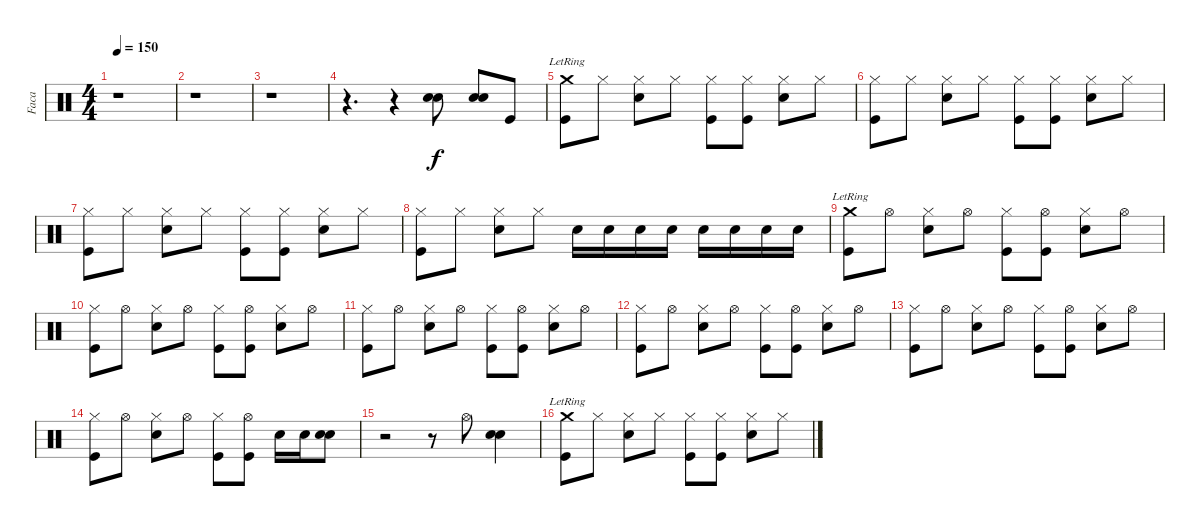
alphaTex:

\track ("Faca" "Faca") {instrument percussion}
\staff {score}
\articulation defaults
\ts (4 4)
\tempo 150
\clef neutral
\ks c
r.1{dy f} |
r.1 |
r.1 |
r.4{d} r.4 ("Snare (hit) 2" "Snare (hit) 2").8{bd 60} ("Snare (hit) 2" "Snare (hit) 2").8{bd 60} "Kick (hit)".8 |
("Crash medium (hit)"{lr} "Kick (hit)").8 "Hi-Hat (closed)".8 ("Hi-Hat (closed)" "Snare (hit) 2").8 "Hi-Hat (closed)".8 ("Hi-Hat (closed)" "Kick (hit)").8 ("Hi-Hat (closed)" "Kick (hit)").8 ("Hi-Hat (closed)" "Snare (hit) 2").8 "Hi-Hat (closed)".8 |
("Hi-Hat (closed)" "Kick (hit)").8 "Hi-Hat (closed)".8 ("Hi-Hat (closed)" "Snare (hit) 2").8 "Hi-Hat (closed)".8 ("Hi-Hat (closed)" "Kick (hit)").8 ("Hi-Hat (closed)" "Kick (hit)").8 ("Hi-Hat (closed)" "Snare (hit) 2").8 "Hi-Hat (closed)".8 |
("Hi-Hat (closed)" "Kick (hit)").8 "Hi-Hat (closed)".8 ("Hi-Hat (closed)" "Snare (hit) 2").8 "Hi-Hat (closed)".8 ("Hi-Hat (closed)" "Kick (hit)").8 ("Hi-Hat (closed)" "Kick (hit)").8 ("Hi-Hat (closed)" "Snare (hit) 2").8 "Hi-Hat (closed)".8 |
("Hi-Hat (closed)" "Kick (hit)").8 "Hi-Hat (closed)".8 ("Hi-Hat (closed)" "Snare (hit) 2").8 "Hi-Hat (closed)".8 "Snare (hit) 2".16 "Snare (hit) 2".16 "Snare (hit) 2".16 "Snare (hit) 2".16 "Snare (hit) 2".16 "Snare (hit) 2".16 "Snare (hit) 2".16 "Snare (hit) 2".16 |
("Crash medium (hit)"{lr} "Kick (hit)").8 "Hi-Hat (open)".8 ("Hi-Hat (closed)" "Snare (hit) 2").8 "Hi-Hat (open)".8 ("Hi-Hat (closed)" "Kick (hit)").8 ("Hi-Hat (open)" "Kick (hit)").8 ("Hi-Hat (closed)" "Snare (hit) 2").8 "Hi-Hat (open)".8 |
("Hi-Hat (closed)" "Kick (hit)").8 "Hi-Hat (open)".8 ("Hi-Hat (closed)" "Snare (hit) 2").8 "Hi-Hat (open)".8 ("Hi-Hat (closed)" "Kick (hit)").8 ("Hi-Hat (open)" "Kick (hit)").8 ("Hi-Hat (closed)" "Snare (hit) 2").8 "Hi-Hat (open)".8 |
("Hi-Hat (closed)" "Kick (hit)").8 "Hi-Hat (open)".8 ("Hi-Hat (closed)" "Snare (hit) 2").8 "Hi-Hat (open)".8 ("Hi-Hat (closed)" "Kick (hit)").8 ("Hi-Hat (open)" "Kick (hit)").8 ("Hi-Hat (closed)" "Snare (hit) 2").8 "Hi-Hat (open)".8 |
("Hi-Hat (closed)" "Kick (hit)").8 "Hi-Hat (open)".8 ("Hi-Hat (closed)" "Snare (hit) 2").8 "Hi-Hat (open)".8 ("Hi-Hat (closed)" "Kick (hit)").8 ("Hi-Hat (open)" "Kick (hit)").8 ("Hi-Hat (closed)" "Snare (hit) 2").8 "Hi-Hat (open)".8 |
("Hi-Hat (closed)" "Kick (hit)").8 "Hi-Hat (open)".8 ("Hi-Hat (closed)" "Snare (hit) 2").8 "Hi-Hat (open)".8 ("Hi-Hat (closed)" "Kick (hit)").8 ("Hi-Hat (open)" "Kick (hit)").8 ("Hi-Hat (closed)" "Snare (hit) 2").8 "Hi-Hat (open)".8 |
("Hi-Hat (closed)" "Kick (hit)").8 "Hi-Hat (open)".8 ("Hi-Hat (closed)" "Snare (hit) 2").8 "Hi-Hat (open)".8 ("Hi-Hat (closed)" "Kick (hit)").8 ("Hi-Hat (open)" "Kick (hit)").8 "Snare (hit) 2".16 "Snare (hit) 2".16 ("Snare (hit) 2" "Snare (hit) 2").8{bd 480} |
r.2 r.8 "Hi-Hat (open)".8 ("Snare (hit) 2" "Snare (hit) 2").4{bd 480} |
("Crash medium (hit)"{lr} "Kick (hit)").8 "Hi-Hat (closed)".8 ("Hi-Hat (closed)" "Snare (hit) 2").8 "Hi-Hat (closed)".8 ("Hi-Hat (closed)" "Kick (hit)").8 ("Hi-Hat (closed)" "Kick (hit)").8 ("Hi-Hat (closed)" "Snare (hit) 2").8 "Hi-Hat (closed)".8
